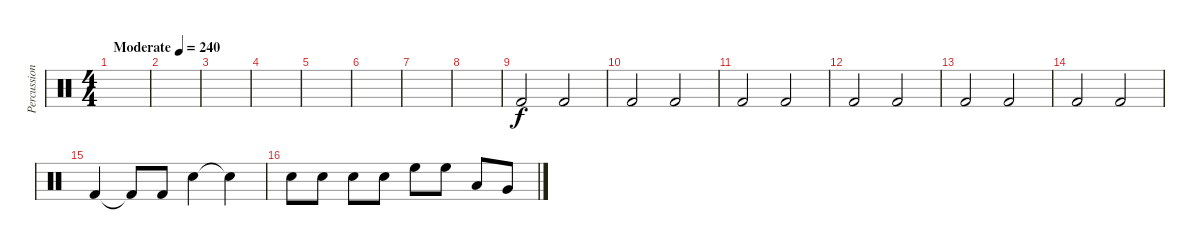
\track ("Percussion" "Percussion") {instrument percussion}
\staff {score}
\articulation defaults
\ts (4 4)
\tempo (240 "Moderate")
\clef neutral
\ks c
|
|
|
|
|
|
|
|
"Kick (hit) 2".2 "Kick (hit) 2".2 |
"Kick (hit) 2".2 "Kick (hit) 2".2 |
"Kick (hit) 2".2 "Kick (hit) 2".2 |
"Kick (hit) 2".2 "Kick (hit) 2".2 |
"Kick (hit) 2".2 "Kick (hit) 2".2 |
"Kick (hit) 2".2 "Kick (hit) 2".2 |
"Kick (hit) 2".4 "Kick (hit) 2"{t}.8 "Kick (hit) 2".8 "Snare (hit) 2".4 "Snare (hit) 2"{t}.4 |
"Snare (hit) 2".8 "Snare (hit) 2".8 "Snare (hit) 2".8 "Snare (hit) 2".8 "High Floor Tom (hit)".8 "High Floor Tom (hit)".8 "Low Tom (hit)".8 "Very Low Tom (hit)".8
